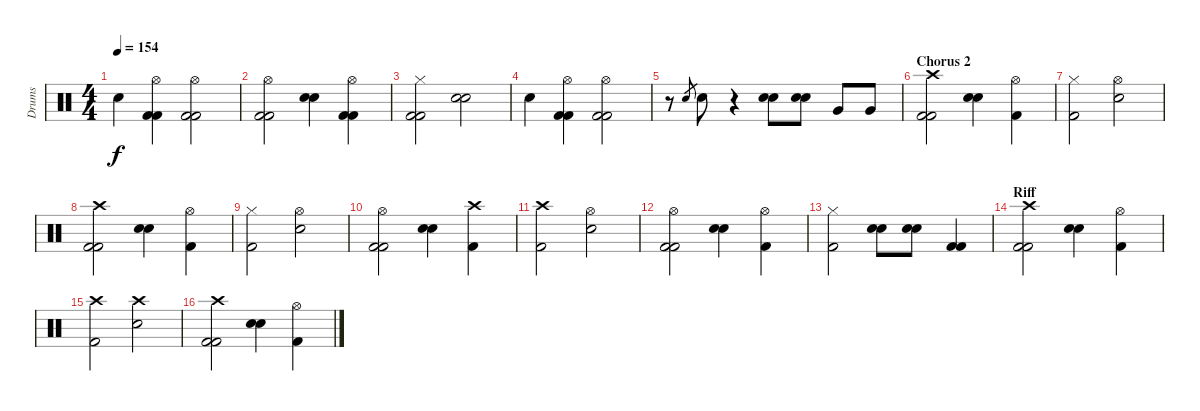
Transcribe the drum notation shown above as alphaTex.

\track ("Drums" "Drums") {instrument percussion}
\staff {score}
\articulation defaults
\ts (4 4)
\tempo 154
\clef neutral
\ks c "Snare (hit) 2".4{dy f}
("Hi-Hat (open)" "Kick (hit) 2" "Kick (hit) 2").4 ("Hi-Hat (open)" "Kick (hit) 2" "Kick (hit) 2").2 |
("Hi-Hat (open)" "Kick (hit) 2" "Kick (hit) 2").2 ("Snare (hit) 2" "Snare (hit) 2").4 ("Hi-Hat (open)" "Kick (hit) 2" "Kick (hit) 2").4 |
("Hi-Hat (closed)" "Kick (hit) 2" "Kick (hit) 2").2 ("Snare (hit) 2" "Snare (hit) 2").2 |
"Snare (hit) 2".4 ("Hi-Hat (open)" "Kick (hit) 2" "Kick (hit) 2").4 ("Hi-Hat (open)" "Kick (hit) 2" "Kick (hit) 2").2 |
r.8 "Snare (hit) 2".8{gr} "Snare (hit) 2".8 r.4 ("Snare (hit) 2" "Snare (hit) 2").8 ("Snare (hit) 2" "Snare (hit) 2").8 "Very Low Tom (hit)".8 "Very Low Tom (hit)".8 |
\section ("" "Chorus 2")
("Crash high (hit)" "Kick (hit) 2" "Kick (hit) 2").2 ("Snare (hit) 2" "Snare (hit) 2").4 ("Hi-Hat (open)" "Kick (hit) 2").4 |
("Hi-Hat (closed)" "Kick (hit) 2").2 ("Hi-Hat (open)" "Snare (hit) 2").2 |
("Crash high (hit)" "Kick (hit) 2" "Kick (hit) 2").2 ("Snare (hit) 2" "Snare (hit) 2").4 ("Hi-Hat (open)" "Kick (hit) 2").4 |
("Hi-Hat (closed)" "Kick (hit) 2").2 ("Hi-Hat (open)" "Snare (hit) 2").2 |
("Hi-Hat (open)" "Kick (hit) 2" "Kick (hit) 2").2 ("Snare (hit) 2" "Snare (hit) 2").4 ("Crash high (hit)" "Kick (hit) 2").4 |
("Crash high (hit)" "Kick (hit) 2").2 ("Hi-Hat (open)" "Snare (hit) 2").2 |
("Hi-Hat (open)" "Kick (hit) 2" "Kick (hit) 2").2 ("Snare (hit) 2" "Snare (hit) 2").4 ("Hi-Hat (open)" "Kick (hit) 2").4 |
("Hi-Hat (closed)" "Kick (hit) 2").2 ("Snare (hit) 2" "Snare (hit) 2").8 ("Snare (hit) 2" "Snare (hit) 2").8 ("Kick (hit) 2" "Kick (hit) 2").4 |
\section ("" "Riff")
("Crash high (hit)" "Kick (hit) 2" "Kick (hit) 2").2 ("Snare (hit) 2" "Snare (hit) 2").4 ("Hi-Hat (open)" "Kick (hit) 2").4 |
("Crash high (hit)" "Kick (hit) 2").2 ("Crash high (hit)" "Snare (hit) 2").2 |
("Crash high (hit)" "Kick (hit) 2" "Kick (hit) 2").2 ("Snare (hit) 2" "Snare (hit) 2").4 ("Hi-Hat (open)" "Kick (hit) 2").4
